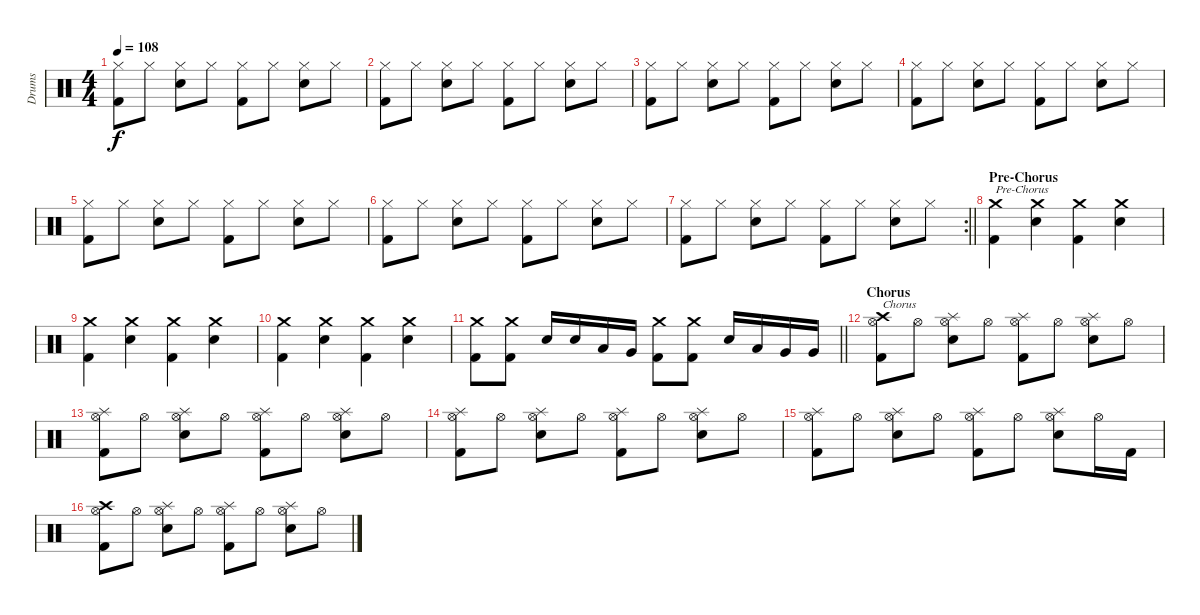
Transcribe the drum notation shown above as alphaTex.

\track ("Drums" "Drums") {instrument percussion}
\staff {score}
\articulation defaults
\ts (4 4)
\tempo 108
\clef neutral
\ks c
("Hi-Hat (closed)" "Kick (hit) 2").8{dy f} "Hi-Hat (closed)".8 ("Hi-Hat (closed)" "Snare (hit) 2").8 "Hi-Hat (closed)".8 ("Hi-Hat (closed)" "Kick (hit) 2").8 "Hi-Hat (closed)".8 ("Hi-Hat (closed)" "Snare (hit) 2").8 "Hi-Hat (closed)".8 |
("Hi-Hat (closed)" "Kick (hit) 2").8 "Hi-Hat (closed)".8 ("Hi-Hat (closed)" "Snare (hit) 2").8 "Hi-Hat (closed)".8 ("Hi-Hat (closed)" "Kick (hit) 2").8 "Hi-Hat (closed)".8 ("Hi-Hat (closed)" "Snare (hit) 2").8 "Hi-Hat (closed)".8 |
("Hi-Hat (closed)" "Kick (hit) 2").8 "Hi-Hat (closed)".8 ("Hi-Hat (closed)" "Snare (hit) 2").8 "Hi-Hat (closed)".8 ("Hi-Hat (closed)" "Kick (hit) 2").8 "Hi-Hat (closed)".8 ("Hi-Hat (closed)" "Snare (hit) 2").8 "Hi-Hat (closed)".8 |
("Hi-Hat (closed)" "Kick (hit) 2").8 "Hi-Hat (closed)".8 ("Hi-Hat (closed)" "Snare (hit) 2").8 "Hi-Hat (closed)".8 ("Hi-Hat (closed)" "Kick (hit) 2").8 "Hi-Hat (closed)".8 ("Hi-Hat (closed)" "Snare (hit) 2").8 "Hi-Hat (closed)".8 |
("Hi-Hat (closed)" "Kick (hit) 2").8 "Hi-Hat (closed)".8 ("Hi-Hat (closed)" "Snare (hit) 2").8 "Hi-Hat (closed)".8 ("Hi-Hat (closed)" "Kick (hit) 2").8 "Hi-Hat (closed)".8 ("Hi-Hat (closed)" "Snare (hit) 2").8 "Hi-Hat (closed)".8 |
("Hi-Hat (closed)" "Kick (hit) 2").8 "Hi-Hat (closed)".8 ("Hi-Hat (closed)" "Snare (hit) 2").8 "Hi-Hat (closed)".8 ("Hi-Hat (closed)" "Kick (hit) 2").8 "Hi-Hat (closed)".8 ("Hi-Hat (closed)" "Snare (hit) 2").8 "Hi-Hat (closed)".8 |
\rc 2
\barLineRight lightlight
("Hi-Hat (closed)" "Kick (hit) 2").8 "Hi-Hat (closed)".8 ("Hi-Hat (closed)" "Snare (hit) 2").8 "Hi-Hat (closed)".8 ("Hi-Hat (closed)" "Kick (hit) 2").8 "Hi-Hat (closed)".8 ("Hi-Hat (closed)" "Snare (hit) 2").8 "Hi-Hat (closed)".8 |
\section ("" "Pre-Chorus")
("Crash medium (hit)" "Kick (hit) 2").4{txt "Pre-Chorus"} ("Crash medium (hit)" "Snare (hit) 2").4 ("Crash medium (hit)" "Kick (hit) 2").4 ("Crash medium (hit)" "Snare (hit) 2").4 |
("Crash medium (hit)" "Kick (hit) 2").4 ("Crash medium (hit)" "Snare (hit) 2").4 ("Crash medium (hit)" "Kick (hit) 2").4 ("Crash medium (hit)" "Snare (hit) 2").4 |
("Crash medium (hit)" "Kick (hit) 2").4 ("Crash medium (hit)" "Snare (hit) 2").4 ("Crash medium (hit)" "Kick (hit) 2").4 ("Crash medium (hit)" "Snare (hit) 2").4 |
\barLineRight lightlight
("Crash medium (hit)" "Kick (hit) 2").8 ("Crash medium (hit)" "Kick (hit) 2").8 "Snare (hit) 2".16 "Snare (hit) 2".16 "Low Tom (hit)".16 "Very Low Tom (hit)".16 ("Crash medium (hit)" "Kick (hit) 2").8 ("Crash medium (hit)" "Kick (hit) 2").8 "Snare (hit) 2".16 "Low Tom (hit)".16 "Very Low Tom (hit)".16 "Very Low Tom (hit)".16 |
\section ("" "Chorus")
("Crash high (hit)" "Hi-Hat (open)" "Kick (hit) 2").8{txt "Chorus"} "Hi-Hat (open)".8 ("Splash (hit)" "Hi-Hat (open)" "Snare (hit) 2").8 "Hi-Hat (open)".8 ("Splash (hit)" "Hi-Hat (open)" "Kick (hit) 2").8 "Hi-Hat (open)".8 ("Splash (hit)" "Hi-Hat (open)" "Snare (hit) 2").8 "Hi-Hat (open)".8 |
("Splash (hit)" "Hi-Hat (open)" "Kick (hit) 2").8 "Hi-Hat (open)".8 ("Splash (hit)" "Hi-Hat (open)" "Snare (hit) 2").8 "Hi-Hat (open)".8 ("Splash (hit)" "Hi-Hat (open)" "Kick (hit) 2").8 "Hi-Hat (open)".8 ("Splash (hit)" "Hi-Hat (open)" "Snare (hit) 2").8 "Hi-Hat (open)".8 |
("Splash (hit)" "Hi-Hat (open)" "Kick (hit) 2").8 "Hi-Hat (open)".8 ("Splash (hit)" "Hi-Hat (open)" "Snare (hit) 2").8 "Hi-Hat (open)".8 ("Splash (hit)" "Hi-Hat (open)" "Kick (hit) 2").8 "Hi-Hat (open)".8 ("Splash (hit)" "Hi-Hat (open)" "Snare (hit) 2").8 "Hi-Hat (open)".8 |
("Splash (hit)" "Hi-Hat (open)" "Kick (hit) 2").8 "Hi-Hat (open)".8 ("Splash (hit)" "Hi-Hat (open)" "Snare (hit) 2").8 "Hi-Hat (open)".8 ("Splash (hit)" "Hi-Hat (open)" "Kick (hit) 2").8 "Hi-Hat (open)".8 ("Splash (hit)" "Hi-Hat (open)" "Snare (hit) 2").8 "Hi-Hat (open)".16 "Kick (hit) 2".16 |
("Crash high (hit)" "Hi-Hat (open)" "Kick (hit) 2").8 "Hi-Hat (open)".8 ("Splash (hit)" "Hi-Hat (open)" "Snare (hit) 2").8 "Hi-Hat (open)".8 ("Splash (hit)" "Hi-Hat (open)" "Kick (hit) 2").8 "Hi-Hat (open)".8 ("Splash (hit)" "Hi-Hat (open)" "Snare (hit) 2").8 "Hi-Hat (open)".8
